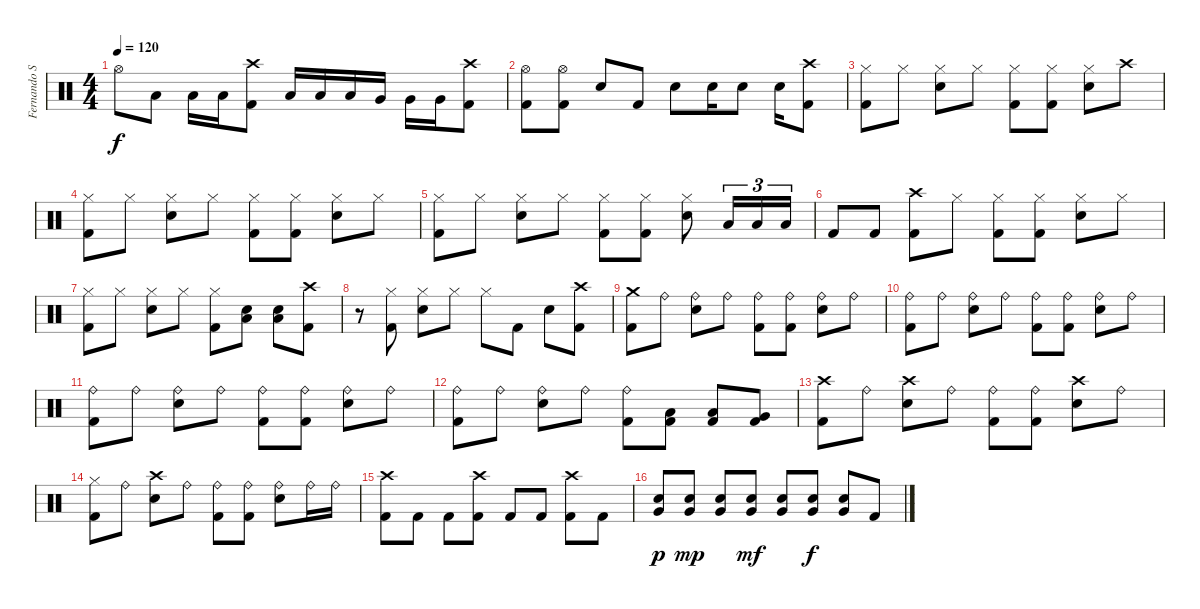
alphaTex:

\track ("Fernando Scarcella" "Fernando S") {instrument percussion}
\staff {score}
\articulation defaults
\ts (4 4)
\tempo 120
\clef neutral
\ks c "Hi-Hat (open)".8{dy f} "Low Tom (hit)".8 "Low Tom (hit)".16 "Low Tom (hit)".16
("Crash high (hit)" "Kick (hit) 2").8 "Low Tom (hit)".16 "Low Tom (hit)".16 "Low Tom (hit)".16 "Very Low Tom (hit)".16 "Very Low Tom (hit)".16 "Very Low Tom (hit)".16 ("Crash high (hit)" "Kick (hit) 2").8 |
("Hi-Hat (open)" "Kick (hit) 2").8 ("Hi-Hat (open)" "Kick (hit) 2").8 "Snare (hit) 2".8 "Kick (hit) 2".8 "Snare (hit) 2".8 "Snare (hit) 2".16 "Snare (hit) 2".8 "Snare (hit) 2".16 ("Crash high (hit)" "Kick (hit) 2").8 |
("Hi-Hat (closed)" "Kick (hit) 2").8 "Hi-Hat (closed)".8 ("Hi-Hat (closed)" "Snare (hit) 2").8 "Hi-Hat (closed)".8 ("Hi-Hat (closed)" "Kick (hit) 2").8 ("Hi-Hat (closed)" "Kick (hit) 2").8 ("Hi-Hat (closed)" "Snare (hit) 2").8 "Crash high (hit)".8 |
("Hi-Hat (closed)" "Kick (hit) 2").8 "Hi-Hat (closed)".8 ("Hi-Hat (closed)" "Snare (hit) 2").8 "Hi-Hat (closed)".8 ("Hi-Hat (closed)" "Kick (hit) 2").8 ("Hi-Hat (closed)" "Kick (hit) 2").8 ("Hi-Hat (closed)" "Snare (hit) 2").8 "Hi-Hat (closed)".8 |
("Hi-Hat (closed)" "Kick (hit) 2").8 "Hi-Hat (closed)".8 ("Hi-Hat (closed)" "Snare (hit) 2").8 "Hi-Hat (closed)".8 ("Hi-Hat (closed)" "Kick (hit) 2").8 ("Hi-Hat (closed)" "Kick (hit) 2").8 ("Hi-Hat (closed)" "Snare (hit) 2").8 "Low Tom (hit)".16{tu (3 2)} "Low Tom (hit)".16{tu (3 2)} "Low Tom (hit)".16{tu (3 2)} |
"Kick (hit) 2".8 "Kick (hit) 2".8 ("Crash high (hit)" "Kick (hit) 2").8 "Hi-Hat (closed)".8 ("Hi-Hat (closed)" "Kick (hit) 2").8 ("Hi-Hat (closed)" "Kick (hit) 2").8 ("Hi-Hat (closed)" "Snare (hit) 2").8 "Hi-Hat (closed)".8 |
("Hi-Hat (closed)" "Kick (hit) 2").8 "Hi-Hat (closed)".8 ("Hi-Hat (closed)" "Snare (hit) 2").8 "Hi-Hat (closed)".8 ("Hi-Hat (closed)" "Kick (hit) 2").8 ("Low Tom (hit)" "Snare (hit) 2").8 ("Low Tom (hit)" "Snare (hit) 2").8 ("Crash high (hit)" "Kick (hit) 2").8 |
r.8 ("Hi-Hat (closed)" "Kick (hit) 2").8 ("Hi-Hat (closed)" "Snare (hit) 2").8 "Hi-Hat (closed)".8 "Hi-Hat (closed)".8 "Kick (hit) 2".8 "Snare (hit) 2".8 ("Crash high (hit)" "Kick (hit) 2").8 |
("Crash medium (hit)" "Kick (hit) 2").8 "Ride (bell)".8 ("Ride (bell)" "Snare (hit) 2").8 "Ride (bell)".8 ("Ride (bell)" "Kick (hit) 2").8 ("Ride (bell)" "Kick (hit) 2").8 ("Ride (bell)" "Snare (hit) 2").8 "Ride (bell)".8 |
("Ride (bell)" "Kick (hit) 2").8 "Ride (bell)".8 ("Ride (bell)" "Snare (hit) 2").8 "Ride (bell)".8 ("Ride (bell)" "Kick (hit) 2").8 ("Ride (bell)" "Kick (hit) 2").8 ("Ride (bell)" "Snare (hit) 2").8 "Ride (bell)".8 |
("Ride (bell)" "Kick (hit) 2").8 "Ride (bell)".8 ("Ride (bell)" "Snare (hit) 2").8 "Ride (bell)".8 ("Ride (bell)" "Kick (hit) 2").8 ("Ride (bell)" "Kick (hit) 2").8 ("Ride (bell)" "Snare (hit) 2").8 "Ride (bell)".8 |
("Ride (bell)" "Kick (hit) 2").8 "Ride (bell)".8 ("Ride (bell)" "Snare (hit) 2").8 "Ride (bell)".8 ("Ride (bell)" "Kick (hit) 2").8 ("Low Tom (hit)" "Kick (hit) 2").8 ("Low Tom (hit)" "Kick (hit) 2").8 ("Very Low Tom (hit)" "Kick (hit) 2").8 |
("Crash high (hit)" "Kick (hit) 2").8 "Ride (bell)".8 ("Crash high (hit)" "Snare (hit) 2").8 "Ride (bell)".8 ("Ride (bell)" "Kick (hit) 2").8 ("Ride (bell)" "Kick (hit) 2").8 ("Crash high (hit)" "Snare (hit) 2").8 "Ride (bell)".8 |
("Hi-Hat (closed)" "Kick (hit) 2").8 "Ride (bell)".8 ("Crash high (hit)" "Snare (hit) 2").8 "Ride (bell)".8 ("Ride (bell)" "Kick (hit) 2").8 ("Ride (bell)" "Kick (hit) 2").8 ("Ride (bell)" "Snare (hit) 2").8 "Ride (bell)".16 "Ride (bell)".16 |
("Crash high (hit)" "Kick (hit) 2").8 "Kick (hit) 2".8 "Kick (hit) 2".8 ("Crash high (hit)" "Kick (hit) 2").8 "Kick (hit) 2".8 "Kick (hit) 2".8 ("Crash high (hit)" "Kick (hit) 2").8 "Kick (hit) 2".8 |
("Very Low Tom (hit)" "Snare (hit) 2").8{dy p} ("Very Low Tom (hit)" "Snare (hit) 2").8{dy mp} ("Very Low Tom (hit)" "Snare (hit) 2").8 ("Very Low Tom (hit)" "Snare (hit) 2").8{dy mf} ("Very Low Tom (hit)" "Snare (hit) 2").8 ("Very Low Tom (hit)" "Snare (hit) 2").8{dy f} ("Very Low Tom (hit)" "Snare (hit) 2").8 "Kick (hit) 2".8
